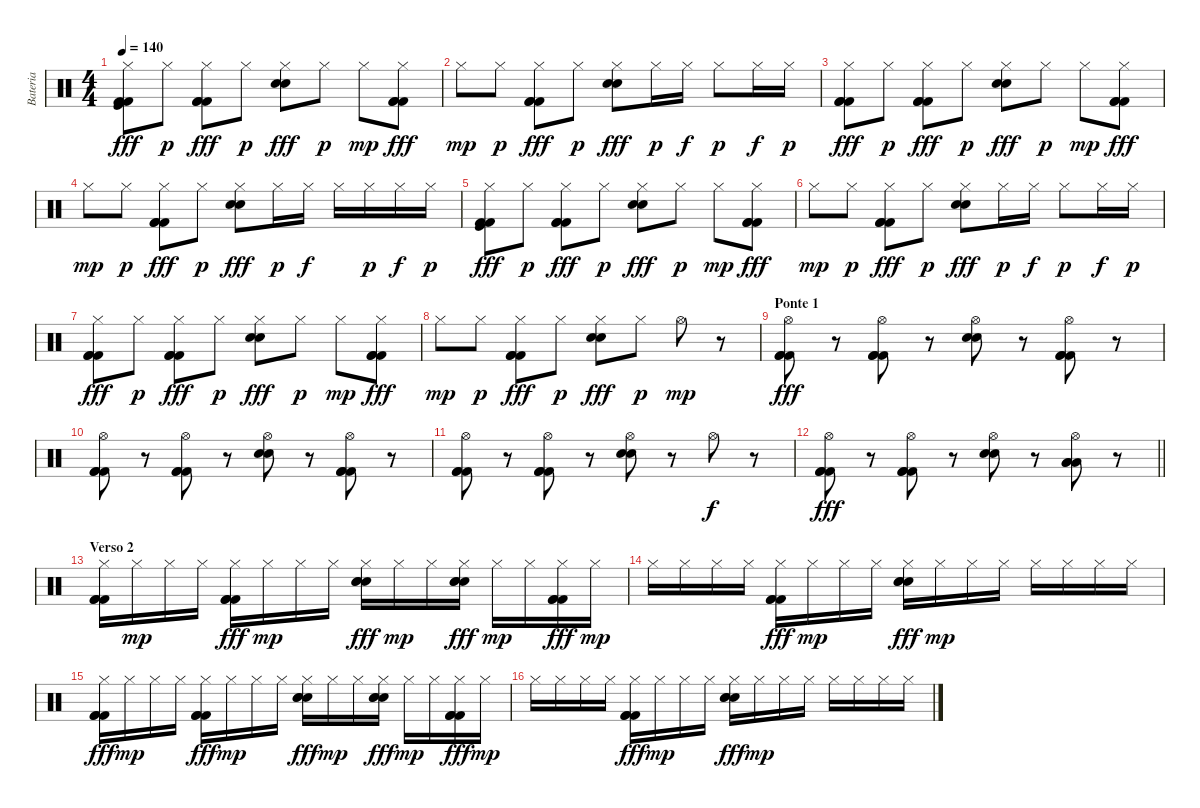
\track ("Bateria" "Bateria") {instrument percussion}
\staff {score}
\articulation defaults
\ts (4 4)
\tempo 140
\clef neutral
\ks c
("Hi-Hat (closed)" "Kick (hit) 2" "Kick (hit) 2" "Kick (hit)").8{dy fff} "Hi-Hat (closed)".8{dy p} ("Hi-Hat (closed)" "Kick (hit) 2" "Kick (hit) 2" "Kick (hit) 2").8{dy fff} "Hi-Hat (closed)".8{dy p} ("Hi-Hat (closed)" "Snare (hit) 2" "Snare (hit) 2").8{dy fff} "Hi-Hat (closed)".8{dy p} "Hi-Hat (closed)".8{dy mp} ("Hi-Hat (closed)" "Kick (hit) 2" "Kick (hit) 2" "Kick (hit) 2").8{dy fff} |
"Hi-Hat (closed)".8{dy mp} "Hi-Hat (closed)".8{dy p} ("Hi-Hat (closed)" "Kick (hit) 2" "Kick (hit) 2" "Kick (hit) 2").8{dy fff} "Hi-Hat (closed)".8{dy p} ("Hi-Hat (closed)" "Snare (hit) 2" "Snare (hit) 2").8{dy fff} "Hi-Hat (closed)".16{dy p} "Hi-Hat (closed)".16{dy f} "Hi-Hat (closed)".8{dy p} "Hi-Hat (closed)".16{dy f} "Hi-Hat (closed)".16{dy p} |
("Hi-Hat (closed)" "Kick (hit) 2" "Kick (hit) 2" "Kick (hit) 2").8{dy fff} "Hi-Hat (closed)".8{dy p} ("Hi-Hat (closed)" "Kick (hit) 2" "Kick (hit) 2" "Kick (hit) 2").8{dy fff} "Hi-Hat (closed)".8{dy p} ("Hi-Hat (closed)" "Snare (hit) 2" "Snare (hit) 2").8{dy fff} "Hi-Hat (closed)".8{dy p} "Hi-Hat (closed)".8{dy mp} ("Hi-Hat (closed)" "Kick (hit) 2" "Kick (hit) 2" "Kick (hit) 2").8{dy fff} |
"Hi-Hat (closed)".8{dy mp} "Hi-Hat (closed)".8{dy p} ("Hi-Hat (closed)" "Kick (hit) 2" "Kick (hit) 2" "Kick (hit) 2").8{dy fff} "Hi-Hat (closed)".8{dy p} ("Hi-Hat (closed)" "Snare (hit) 2" "Snare (hit) 2").8{dy fff} "Hi-Hat (closed)".16{dy p} "Hi-Hat (closed)".16{dy f} "Hi-Hat (closed)".16 "Hi-Hat (closed)".16{dy p} "Hi-Hat (closed)".16{dy f} "Hi-Hat (closed)".16{dy p} |
("Hi-Hat (closed)" "Kick (hit) 2" "Kick (hit) 2" "Kick (hit)").8{dy fff} "Hi-Hat (closed)".8{dy p} ("Hi-Hat (closed)" "Kick (hit) 2" "Kick (hit) 2" "Kick (hit) 2").8{dy fff} "Hi-Hat (closed)".8{dy p} ("Hi-Hat (closed)" "Snare (hit) 2" "Snare (hit) 2").8{dy fff} "Hi-Hat (closed)".8{dy p} "Hi-Hat (closed)".8{dy mp} ("Hi-Hat (closed)" "Kick (hit) 2" "Kick (hit) 2" "Kick (hit) 2").8{dy fff} |
"Hi-Hat (closed)".8{dy mp} "Hi-Hat (closed)".8{dy p} ("Hi-Hat (closed)" "Kick (hit) 2" "Kick (hit) 2" "Kick (hit) 2").8{dy fff} "Hi-Hat (closed)".8{dy p} ("Hi-Hat (closed)" "Snare (hit) 2" "Snare (hit) 2").8{dy fff} "Hi-Hat (closed)".16{dy p} "Hi-Hat (closed)".16{dy f} "Hi-Hat (closed)".8{dy p} "Hi-Hat (closed)".16{dy f} "Hi-Hat (closed)".16{dy p} |
("Hi-Hat (closed)" "Kick (hit) 2" "Kick (hit) 2" "Kick (hit) 2").8{dy fff} "Hi-Hat (closed)".8{dy p} ("Hi-Hat (closed)" "Kick (hit) 2" "Kick (hit) 2" "Kick (hit) 2").8{dy fff} "Hi-Hat (closed)".8{dy p} ("Hi-Hat (closed)" "Snare (hit) 2" "Snare (hit) 2").8{dy fff} "Hi-Hat (closed)".8{dy p} "Hi-Hat (closed)".8{dy mp} ("Hi-Hat (closed)" "Kick (hit) 2" "Kick (hit) 2" "Kick (hit) 2").8{dy fff} |
"Hi-Hat (closed)".8{dy mp} "Hi-Hat (closed)".8{dy p} ("Hi-Hat (closed)" "Kick (hit) 2" "Kick (hit) 2" "Kick (hit) 2").8{dy fff} "Hi-Hat (closed)".8{dy p} ("Hi-Hat (closed)" "Snare (hit) 2" "Snare (hit) 2").8{dy fff} "Hi-Hat (closed)".8{dy p} "Hi-Hat (open)".8{dy mp} r.8 |
\section ("" "Ponte 1")
("Hi-Hat (open)" "Kick (hit) 2" "Kick (hit) 2" "Kick (hit) 2").8{dy fff} r.8 ("Hi-Hat (open)" "Kick (hit) 2" "Kick (hit) 2" "Kick (hit) 2").8 r.8 ("Hi-Hat (open)" "Snare (hit) 2" "Snare (hit) 2").8 r.8 ("Hi-Hat (open)" "Kick (hit) 2" "Kick (hit) 2" "Kick (hit) 2").8 r.8 |
("Hi-Hat (open)" "Kick (hit) 2" "Kick (hit) 2" "Kick (hit) 2").8 r.8 ("Hi-Hat (open)" "Kick (hit) 2" "Kick (hit) 2" "Kick (hit) 2").8 r.8 ("Hi-Hat (open)" "Snare (hit) 2" "Snare (hit) 2").8 r.8 ("Hi-Hat (open)" "Kick (hit) 2" "Kick (hit) 2" "Kick (hit) 2").8 r.8 |
("Hi-Hat (open)" "Kick (hit) 2" "Kick (hit) 2" "Kick (hit) 2").8 r.8 ("Hi-Hat (open)" "Kick (hit) 2" "Kick (hit) 2" "Kick (hit) 2").8 r.8 ("Hi-Hat (open)" "Snare (hit) 2" "Snare (hit) 2").8 r.8 "Hi-Hat (open)".8{dy f} r.8 |
\barLineRight lightlight
("Hi-Hat (open)" "Kick (hit) 2" "Kick (hit) 2" "Kick (hit) 2").8{dy fff} r.8 ("Hi-Hat (open)" "Kick (hit) 2" "Kick (hit) 2" "Kick (hit) 2").8 r.8 ("Hi-Hat (open)" "Snare (hit) 2" "Snare (hit) 2").8 r.8 ("Hi-Hat (open)" "Low Tom (hit)" "Low Tom (hit)" "Low Tom (hit)").8 r.8 |
\section ("" "Verso 2")
("Hi-Hat (closed)" "Kick (hit) 2" "Kick (hit) 2" "Kick (hit) 2").16 "Hi-Hat (closed)".16{dy mp} "Hi-Hat (closed)".16 "Hi-Hat (closed)".16 ("Hi-Hat (closed)" "Kick (hit) 2" "Kick (hit) 2" "Kick (hit) 2").16{dy fff} "Hi-Hat (closed)".16{dy mp} "Hi-Hat (closed)".16 "Hi-Hat (closed)".16 ("Hi-Hat (closed)" "Snare (hit) 2" "Snare (hit) 2" "Snare (hit) 2").16{dy fff} "Hi-Hat (closed)".16{dy mp} "Hi-Hat (closed)".16 ("Hi-Hat (closed)" "Snare (hit) 2" "Snare (hit) 2" "Snare (hit) 2").16{dy fff} "Hi-Hat (closed)".16{dy mp} "Hi-Hat (closed)".16 ("Hi-Hat (closed)" "Kick (hit) 2" "Kick (hit) 2" "Kick (hit) 2").16{dy fff} "Hi-Hat (closed)".16{dy mp} |
"Hi-Hat (closed)".16 "Hi-Hat (closed)".16 "Hi-Hat (closed)".16 "Hi-Hat (closed)".16 ("Hi-Hat (closed)" "Kick (hit) 2" "Kick (hit) 2" "Kick (hit) 2").16{dy fff} "Hi-Hat (closed)".16{dy mp} "Hi-Hat (closed)".16 "Hi-Hat (closed)".16 ("Hi-Hat (closed)" "Snare (hit) 2" "Snare (hit) 2" "Snare (hit) 2").16{dy fff} "Hi-Hat (closed)".16{dy mp} "Hi-Hat (closed)".16 "Hi-Hat (closed)".16 "Hi-Hat (closed)".16 "Hi-Hat (closed)".16 "Hi-Hat (closed)".16 "Hi-Hat (closed)".16 |
("Hi-Hat (closed)" "Kick (hit) 2" "Kick (hit) 2" "Kick (hit) 2").16{dy fff} "Hi-Hat (closed)".16{dy mp} "Hi-Hat (closed)".16 "Hi-Hat (closed)".16 ("Hi-Hat (closed)" "Kick (hit) 2" "Kick (hit) 2" "Kick (hit) 2").16{dy fff} "Hi-Hat (closed)".16{dy mp} "Hi-Hat (closed)".16 "Hi-Hat (closed)".16 ("Hi-Hat (closed)" "Snare (hit) 2" "Snare (hit) 2" "Snare (hit) 2").16{dy fff} "Hi-Hat (closed)".16{dy mp} "Hi-Hat (closed)".16 ("Hi-Hat (closed)" "Snare (hit) 2" "Snare (hit) 2" "Snare (hit) 2").16{dy fff} "Hi-Hat (closed)".16{dy mp} "Hi-Hat (closed)".16 ("Hi-Hat (closed)" "Kick (hit) 2" "Kick (hit) 2" "Kick (hit) 2").16{dy fff} "Hi-Hat (closed)".16{dy mp} |
"Hi-Hat (closed)".16 "Hi-Hat (closed)".16 "Hi-Hat (closed)".16 "Hi-Hat (closed)".16 ("Hi-Hat (closed)" "Kick (hit) 2" "Kick (hit) 2" "Kick (hit) 2").16{dy fff} "Hi-Hat (closed)".16{dy mp} "Hi-Hat (closed)".16 "Hi-Hat (closed)".16 ("Hi-Hat (closed)" "Snare (hit) 2" "Snare (hit) 2" "Snare (hit) 2").16{dy fff} "Hi-Hat (closed)".16{dy mp} "Hi-Hat (closed)".16 "Hi-Hat (closed)".16 "Hi-Hat (closed)".16 "Hi-Hat (closed)".16 "Hi-Hat (closed)".16 "Hi-Hat (closed)".16
